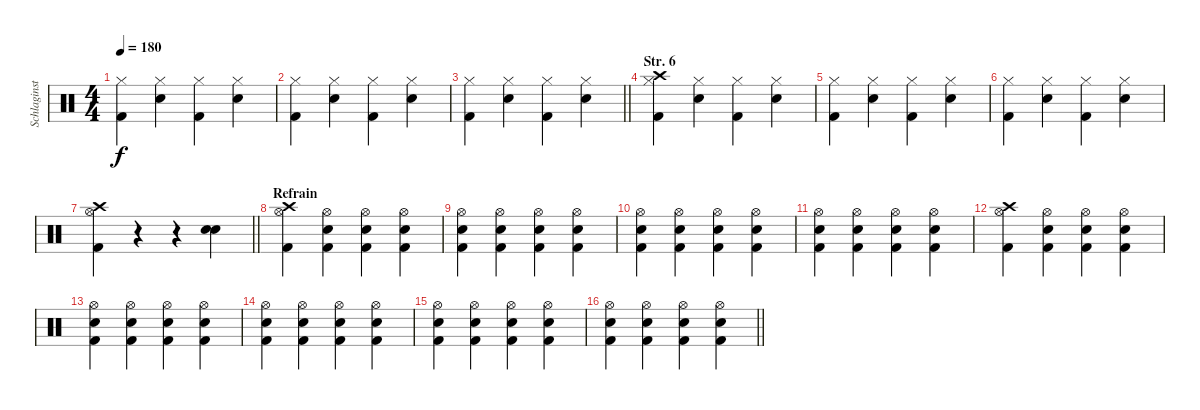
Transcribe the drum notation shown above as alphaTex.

\track ("Schlaginstrumente - Auswahl" "Schlaginst") {instrument percussion}
\staff {score}
\articulation defaults
\ts (4 4)
\tempo 180
\clef neutral
\ks c
("Hi-Hat (closed)" "Kick (hit) 2").4{dy f} ("Hi-Hat (closed)" "Electric Snare (hit)").4 ("Hi-Hat (closed)" "Kick (hit) 2").4 ("Hi-Hat (closed)" "Electric Snare (hit)").4 |
("Hi-Hat (closed)" "Kick (hit) 2").4 ("Hi-Hat (closed)" "Electric Snare (hit)").4 ("Hi-Hat (closed)" "Kick (hit) 2").4 ("Hi-Hat (closed)" "Electric Snare (hit)").4 |
\barLineRight lightlight
("Hi-Hat (closed)" "Kick (hit) 2").4 ("Hi-Hat (closed)" "Electric Snare (hit)").4 ("Hi-Hat (closed)" "Kick (hit) 2").4 ("Hi-Hat (closed)" "Electric Snare (hit)").4 |
\section ("" "Str. 6")
("Crash high (hit)" "Hi-Hat (closed)" "Kick (hit) 2").4 ("Hi-Hat (closed)" "Electric Snare (hit)").4 ("Hi-Hat (closed)" "Kick (hit) 2").4 ("Hi-Hat (closed)" "Electric Snare (hit)").4 |
("Hi-Hat (closed)" "Kick (hit) 2").4 ("Hi-Hat (closed)" "Electric Snare (hit)").4 ("Hi-Hat (closed)" "Kick (hit) 2").4 ("Hi-Hat (closed)" "Electric Snare (hit)").4 |
("Hi-Hat (closed)" "Kick (hit) 2").4 ("Hi-Hat (closed)" "Electric Snare (hit)").4 ("Hi-Hat (closed)" "Kick (hit) 2").4 ("Hi-Hat (closed)" "Electric Snare (hit)").4 |
\barLineRight lightlight
("Crash high (hit)" "Hi-Hat (open)" "Kick (hit) 2").4 r.4 r.4 ("Electric Snare (hit)" "Electric Snare (hit)").4 |
\section ("" "Refrain")
("Crash high (hit)" "Hi-Hat (open)" "Kick (hit) 2").4 ("Hi-Hat (open)" "Electric Snare (hit)" "Kick (hit) 2").4 ("Hi-Hat (open)" "Electric Snare (hit)" "Kick (hit) 2").4 ("Hi-Hat (open)" "Electric Snare (hit)" "Kick (hit) 2").4 |
("Hi-Hat (open)" "Electric Snare (hit)" "Kick (hit) 2").4 ("Hi-Hat (open)" "Electric Snare (hit)" "Kick (hit) 2").4 ("Hi-Hat (open)" "Electric Snare (hit)" "Kick (hit) 2").4 ("Hi-Hat (open)" "Electric Snare (hit)" "Kick (hit) 2").4 |
("Hi-Hat (open)" "Electric Snare (hit)" "Kick (hit) 2").4 ("Hi-Hat (open)" "Electric Snare (hit)" "Kick (hit) 2").4 ("Hi-Hat (open)" "Electric Snare (hit)" "Kick (hit) 2").4 ("Hi-Hat (open)" "Electric Snare (hit)" "Kick (hit) 2").4 |
("Hi-Hat (open)" "Electric Snare (hit)" "Kick (hit) 2").4 ("Hi-Hat (open)" "Electric Snare (hit)" "Kick (hit) 2").4 ("Hi-Hat (open)" "Electric Snare (hit)" "Kick (hit) 2").4 ("Hi-Hat (open)" "Electric Snare (hit)" "Kick (hit) 2").4 |
("Crash high (hit)" "Hi-Hat (open)" "Kick (hit) 2").4 ("Hi-Hat (open)" "Electric Snare (hit)" "Kick (hit) 2").4 ("Hi-Hat (open)" "Electric Snare (hit)" "Kick (hit) 2").4 ("Hi-Hat (open)" "Electric Snare (hit)" "Kick (hit) 2").4 |
("Hi-Hat (open)" "Electric Snare (hit)" "Kick (hit) 2").4 ("Hi-Hat (open)" "Electric Snare (hit)" "Kick (hit) 2").4 ("Hi-Hat (open)" "Electric Snare (hit)" "Kick (hit) 2").4 ("Hi-Hat (open)" "Electric Snare (hit)" "Kick (hit) 2").4 |
("Hi-Hat (open)" "Electric Snare (hit)" "Kick (hit) 2").4 ("Hi-Hat (open)" "Electric Snare (hit)" "Kick (hit) 2").4 ("Hi-Hat (open)" "Electric Snare (hit)" "Kick (hit) 2").4 ("Hi-Hat (open)" "Electric Snare (hit)" "Kick (hit) 2").4 |
("Hi-Hat (open)" "Electric Snare (hit)" "Kick (hit) 2").4 ("Hi-Hat (open)" "Electric Snare (hit)" "Kick (hit) 2").4 ("Hi-Hat (open)" "Electric Snare (hit)" "Kick (hit) 2").4 ("Hi-Hat (open)" "Electric Snare (hit)" "Kick (hit) 2").4 |
\barLineRight lightlight
("Hi-Hat (open)" "Electric Snare (hit)" "Kick (hit) 2").4 ("Hi-Hat (open)" "Electric Snare (hit)" "Kick (hit) 2").4 ("Hi-Hat (open)" "Electric Snare (hit)" "Kick (hit) 2").4 ("Hi-Hat (open)" "Electric Snare (hit)" "Kick (hit) 2").4
